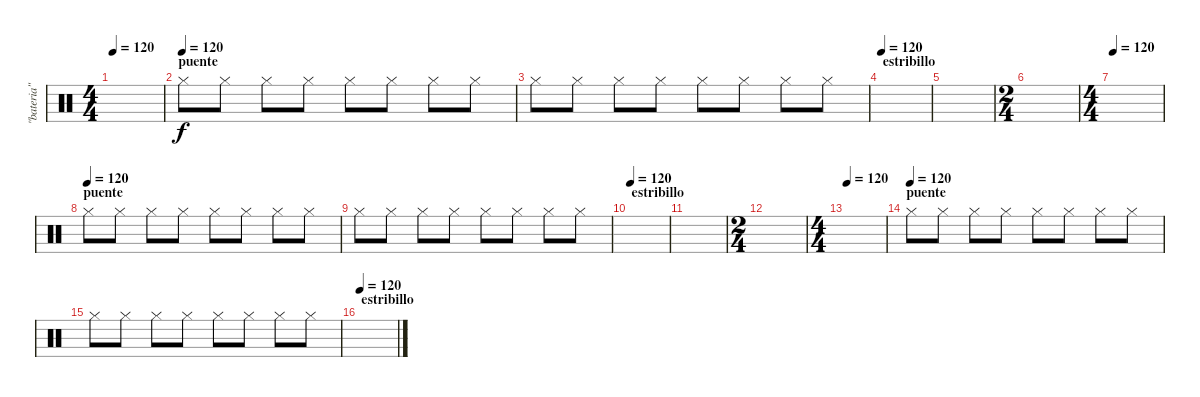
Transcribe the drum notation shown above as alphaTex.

\track ("\"bateria\"" "\"bateria\"") {instrument percussion}
\staff {score}
\articulation defaults
\ts (4 4)
\tempo 120
\clef neutral
\ks c
|
\section ("" "puente")
\tempo (120)
"Hi-Hat (closed)".8 "Hi-Hat (closed)".8 "Hi-Hat (closed)".8 "Hi-Hat (closed)".8 "Hi-Hat (closed)".8 "Hi-Hat (closed)".8 "Hi-Hat (closed)".8 "Hi-Hat (closed)".8 |
"Hi-Hat (closed)".8 "Hi-Hat (closed)".8 "Hi-Hat (closed)".8 "Hi-Hat (closed)".8 "Hi-Hat (closed)".8 "Hi-Hat (closed)".8 "Hi-Hat (closed)".8 "Hi-Hat (closed)".8 |
\section ("" "estribillo")
\tempo 120
|
|
\ts (2 4)
|
\ts (4 4)
\tempo 120
|
\section ("" "puente")
\tempo (120)
"Hi-Hat (closed)".8 "Hi-Hat (closed)".8 "Hi-Hat (closed)".8 "Hi-Hat (closed)".8 "Hi-Hat (closed)".8 "Hi-Hat (closed)".8 "Hi-Hat (closed)".8 "Hi-Hat (closed)".8 |
"Hi-Hat (closed)".8 "Hi-Hat (closed)".8 "Hi-Hat (closed)".8 "Hi-Hat (closed)".8 "Hi-Hat (closed)".8 "Hi-Hat (closed)".8 "Hi-Hat (closed)".8 "Hi-Hat (closed)".8 |
\section ("" "estribillo")
\tempo 120
|
|
\ts (2 4)
|
\ts (4 4)
\tempo 120
|
\section ("" "puente")
\tempo (120)
"Hi-Hat (closed)".8 "Hi-Hat (closed)".8 "Hi-Hat (closed)".8 "Hi-Hat (closed)".8 "Hi-Hat (closed)".8 "Hi-Hat (closed)".8 "Hi-Hat (closed)".8 "Hi-Hat (closed)".8 |
"Hi-Hat (closed)".8 "Hi-Hat (closed)".8 "Hi-Hat (closed)".8 "Hi-Hat (closed)".8 "Hi-Hat (closed)".8 "Hi-Hat (closed)".8 "Hi-Hat (closed)".8 "Hi-Hat (closed)".8 |
\section ("" "estribillo")
\tempo 120
